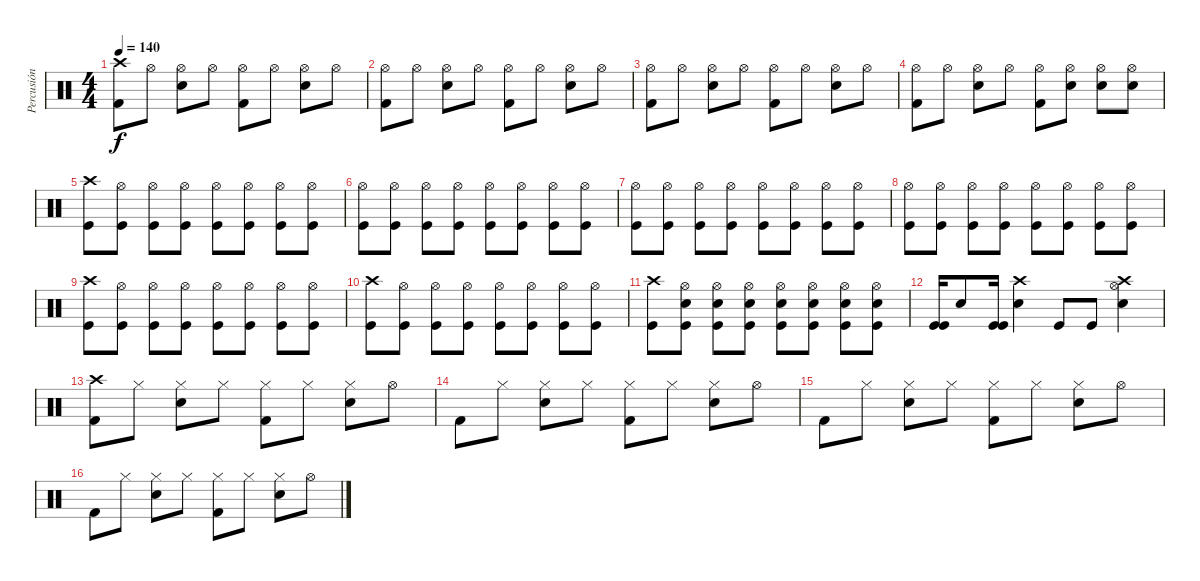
\track ("Percusión" "Percusión") {instrument percussion}
\staff {score}
\articulation defaults
\ts (4 4)
\tempo 140
\clef neutral
\ks c
("Crash high (hit)" "Kick (hit) 2").8{dy f} "Hi-Hat (open)".8 ("Hi-Hat (open)" "Electric Snare (hit)").8 "Hi-Hat (open)".8 ("Hi-Hat (open)" "Kick (hit) 2").8 "Hi-Hat (open)".8 ("Hi-Hat (open)" "Electric Snare (hit)").8 "Hi-Hat (open)".8 |
("Hi-Hat (open)" "Kick (hit) 2").8 "Hi-Hat (open)".8 ("Hi-Hat (open)" "Electric Snare (hit)").8 "Hi-Hat (open)".8 ("Hi-Hat (open)" "Kick (hit) 2").8 "Hi-Hat (open)".8 ("Hi-Hat (open)" "Electric Snare (hit)").8 "Hi-Hat (open)".8 |
("Hi-Hat (open)" "Kick (hit) 2").8 "Hi-Hat (open)".8 ("Hi-Hat (open)" "Electric Snare (hit)").8 "Hi-Hat (open)".8 ("Hi-Hat (open)" "Kick (hit) 2").8 "Hi-Hat (open)".8 ("Hi-Hat (open)" "Electric Snare (hit)").8 "Hi-Hat (open)".8 |
("Hi-Hat (open)" "Kick (hit) 2").8 "Hi-Hat (open)".8 ("Hi-Hat (open)" "Electric Snare (hit)").8 "Hi-Hat (open)".8 ("Hi-Hat (open)" "Kick (hit) 2").8 ("Hi-Hat (open)" "Electric Snare (hit)").8 ("Hi-Hat (open)" "Electric Snare (hit)").8 ("Hi-Hat (open)" "Electric Snare (hit)").8 |
("Crash high (hit)" "Kick (hit)").8 ("Hi-Hat (open)" "Kick (hit)").8 ("Hi-Hat (open)" "Kick (hit)").8 ("Hi-Hat (open)" "Kick (hit)").8 ("Hi-Hat (open)" "Kick (hit)").8 ("Hi-Hat (open)" "Kick (hit)").8 ("Hi-Hat (open)" "Kick (hit)").8 ("Hi-Hat (open)" "Kick (hit)").8 |
("Hi-Hat (open)" "Kick (hit)").8 ("Hi-Hat (open)" "Kick (hit)").8 ("Hi-Hat (open)" "Kick (hit)").8 ("Hi-Hat (open)" "Kick (hit)").8 ("Hi-Hat (open)" "Kick (hit)").8 ("Hi-Hat (open)" "Kick (hit)").8 ("Hi-Hat (open)" "Kick (hit)").8 ("Hi-Hat (open)" "Kick (hit)").8 |
("Hi-Hat (open)" "Kick (hit)").8 ("Hi-Hat (open)" "Kick (hit)").8 ("Hi-Hat (open)" "Kick (hit)").8 ("Hi-Hat (open)" "Kick (hit)").8 ("Hi-Hat (open)" "Kick (hit)").8 ("Hi-Hat (open)" "Kick (hit)").8 ("Hi-Hat (open)" "Kick (hit)").8 ("Hi-Hat (open)" "Kick (hit)").8 |
("Hi-Hat (open)" "Kick (hit)").8 ("Hi-Hat (open)" "Kick (hit)").8 ("Hi-Hat (open)" "Kick (hit)").8 ("Hi-Hat (open)" "Kick (hit)").8 ("Hi-Hat (open)" "Kick (hit)").8 ("Hi-Hat (open)" "Kick (hit)").8 ("Hi-Hat (open)" "Kick (hit)").8 ("Hi-Hat (open)" "Kick (hit)").8 |
("Crash high (hit)" "Kick (hit)").8 ("Hi-Hat (open)" "Kick (hit)").8 ("Hi-Hat (open)" "Kick (hit)").8 ("Hi-Hat (open)" "Kick (hit)").8 ("Hi-Hat (open)" "Kick (hit)").8 ("Hi-Hat (open)" "Kick (hit)").8 ("Hi-Hat (open)" "Kick (hit)").8 ("Hi-Hat (open)" "Kick (hit)").8 |
("Crash high (hit)" "Kick (hit)").8 ("Hi-Hat (open)" "Kick (hit)").8 ("Hi-Hat (open)" "Kick (hit)").8 ("Hi-Hat (open)" "Kick (hit)").8 ("Hi-Hat (open)" "Kick (hit)").8 ("Hi-Hat (open)" "Kick (hit)").8 ("Hi-Hat (open)" "Kick (hit)").8 ("Hi-Hat (open)" "Kick (hit)").8 |
("Crash high (hit)" "Kick (hit)").8 ("Hi-Hat (open)" "Kick (hit)" "Electric Snare (hit)").8 ("Hi-Hat (open)" "Kick (hit)" "Electric Snare (hit)").8 ("Hi-Hat (open)" "Kick (hit)" "Electric Snare (hit)").8 ("Hi-Hat (open)" "Kick (hit)" "Electric Snare (hit)").8 ("Hi-Hat (open)" "Kick (hit)" "Electric Snare (hit)").8 ("Hi-Hat (open)" "Kick (hit)" "Electric Snare (hit)").8 ("Hi-Hat (open)" "Kick (hit)" "Electric Snare (hit)").8 |
("Kick (hit)" "Kick (hit)").16 "Electric Snare (hit)".8 ("Kick (hit)" "Kick (hit)").16 ("Electric Snare (hit)" "Crash high (hit)").4 "Kick (hit)".8 "Kick (hit)".8 ("Electric Snare (hit)" "Hi-Hat (open)" "Crash high (hit)").4 |
("Crash high (hit)" "Kick (hit) 2").8 "Hi-Hat (closed)".8 ("Hi-Hat (closed)" "Electric Snare (hit)").8 "Hi-Hat (closed)".8 ("Hi-Hat (closed)" "Kick (hit) 2").8 "Hi-Hat (closed)".8 ("Hi-Hat (closed)" "Electric Snare (hit)").8 "Hi-Hat (open)".8 |
"Kick (hit) 2".8 "Hi-Hat (closed)".8 ("Hi-Hat (closed)" "Electric Snare (hit)").8 "Hi-Hat (closed)".8 ("Hi-Hat (closed)" "Kick (hit) 2").8 "Hi-Hat (closed)".8 ("Hi-Hat (closed)" "Electric Snare (hit)").8 "Hi-Hat (open)".8 |
"Kick (hit) 2".8 "Hi-Hat (closed)".8 ("Hi-Hat (closed)" "Electric Snare (hit)").8 "Hi-Hat (closed)".8 ("Hi-Hat (closed)" "Kick (hit) 2").8 "Hi-Hat (closed)".8 ("Hi-Hat (closed)" "Electric Snare (hit)").8 "Hi-Hat (open)".8 |
"Kick (hit) 2".8 "Hi-Hat (closed)".8 ("Hi-Hat (closed)" "Electric Snare (hit)").8 "Hi-Hat (closed)".8 ("Hi-Hat (closed)" "Kick (hit) 2").8 "Hi-Hat (closed)".8 ("Hi-Hat (closed)" "Electric Snare (hit)").8 "Hi-Hat (open)".8
